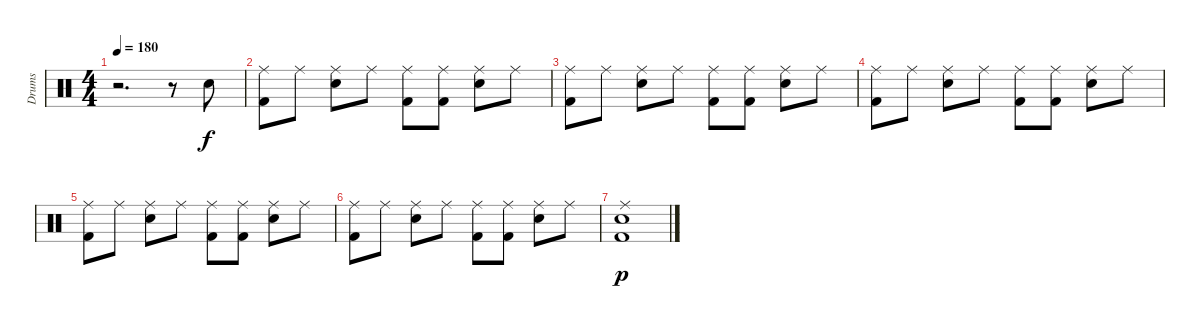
\track ("Drums" "Drums") {instrument percussion}
\staff {score}
\articulation defaults
\ts (4 4)
\tempo 180
\clef neutral
\ks c
r.2{d dy f} r.8 "Electric Snare (hit)".8 |
("Ride (middle)" "Kick (hit) 2").8 "Ride (middle)".8 ("Ride (middle)" "Electric Snare (hit)").8 "Ride (middle)".8 ("Ride (middle)" "Kick (hit) 2").8 ("Ride (middle)" "Kick (hit) 2").8 ("Ride (middle)" "Electric Snare (hit)").8 "Ride (middle)".8 |
("Ride (middle)" "Kick (hit) 2").8 "Ride (middle)".8 ("Ride (middle)" "Electric Snare (hit)").8 "Ride (middle)".8 ("Ride (middle)" "Kick (hit) 2").8 ("Ride (middle)" "Kick (hit) 2").8 ("Ride (middle)" "Electric Snare (hit)").8 "Ride (middle)".8 |
("Ride (middle)" "Kick (hit) 2").8 "Ride (middle)".8 ("Ride (middle)" "Electric Snare (hit)").8 "Ride (middle)".8 ("Ride (middle)" "Kick (hit) 2").8 ("Ride (middle)" "Kick (hit) 2").8 ("Ride (middle)" "Electric Snare (hit)").8 "Ride (middle)".8 |
("Ride (middle)" "Kick (hit) 2").8 "Ride (middle)".8 ("Ride (middle)" "Electric Snare (hit)").8 "Ride (middle)".8 ("Ride (middle)" "Kick (hit) 2").8 ("Ride (middle)" "Kick (hit) 2").8 ("Ride (middle)" "Electric Snare (hit)").8 "Ride (middle)".8 |
("Ride (middle)" "Kick (hit) 2").8 "Ride (middle)".8 ("Ride (middle)" "Electric Snare (hit)").8 "Ride (middle)".8 ("Ride (middle)" "Kick (hit) 2").8 ("Ride (middle)" "Kick (hit) 2").8 ("Ride (middle)" "Electric Snare (hit)").8 "Ride (middle)".8 |
("Ride (middle)" "Electric Snare (hit)" "Kick (hit) 2").1{dy p}
